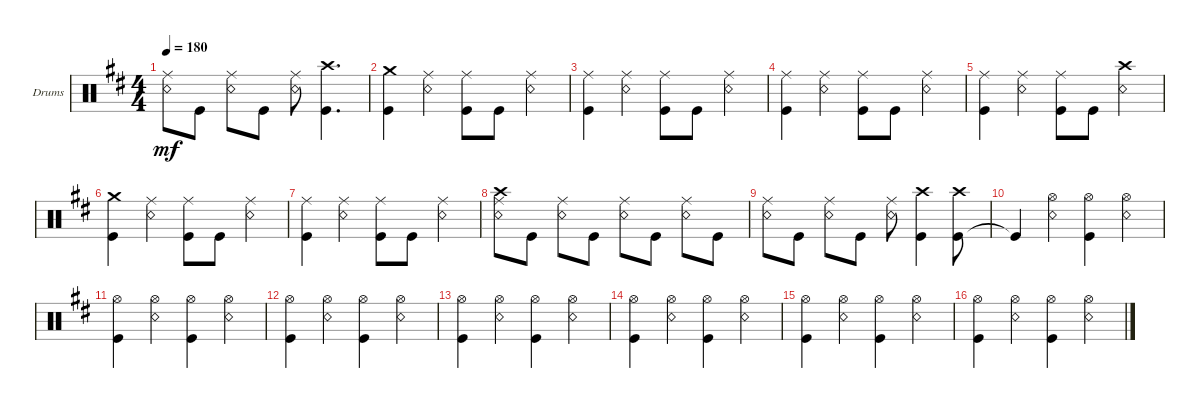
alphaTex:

\defaultSystemsLayout 4
\bracketExtendMode groupsimilarinstruments
\firstSystemTrackNameOrientation horizontal
\otherSystemsTrackNameOrientation horizontal
\track ("Drumkit" "Drums") {instrument percussion}
\staff {score}
\articulation defaults
\ts (4 4)
\tempo 180
\clef neutral
\ks bminor
("Snare (rim shot)" "Ride (middle)").8{dy mf} "Kick (hit)".8 ("Snare (rim shot)" "Ride (middle)").8 "Kick (hit)".8 ("Snare (rim shot)" "Ride (middle)").8 ("Kick (hit)" "Crash high (hit)").4{d} |
("Kick (hit)" "Crash medium (hit)").4 ("Ride (middle)" "Snare (rim shot)").4 ("Ride (middle)" "Kick (hit)").8 "Kick (hit)".8 ("Ride (middle)" "Snare (rim shot)").4 |
("Kick (hit)" "Ride (middle)").4 ("Ride (middle)" "Snare (rim shot)").4 ("Ride (middle)" "Kick (hit)").8 "Kick (hit)".8 ("Ride (middle)" "Snare (rim shot)").4 |
("Kick (hit)" "Ride (middle)").4 ("Ride (middle)" "Snare (rim shot)").4 ("Ride (middle)" "Kick (hit)").8 "Kick (hit)".8 ("Ride (middle)" "Snare (rim shot)").4 |
("Kick (hit)" "Ride (middle)").4 ("Ride (middle)" "Snare (rim shot)").4 ("Ride (middle)" "Kick (hit)").8 "Kick (hit)".8 ("Snare (rim shot)" "Crash high (hit)").4 |
("Kick (hit)" "Crash medium (hit)").4 ("Ride (middle)" "Snare (rim shot)").4 ("Ride (middle)" "Kick (hit)").8 "Kick (hit)".8 ("Ride (middle)" "Snare (rim shot)").4 |
("Kick (hit)" "Ride (middle)").4 ("Ride (middle)" "Snare (rim shot)").4 ("Ride (middle)" "Kick (hit)").8 "Kick (hit)".8 ("Ride (middle)" "Snare (rim shot)").4 |
("Snare (rim shot)" "Ride (middle)" "Crash high (hit)").8 "Kick (hit)".8 ("Snare (rim shot)" "Ride (middle)").8 "Kick (hit)".8 ("Snare (rim shot)" "Ride (middle)").8 "Kick (hit)".8 ("Snare (rim shot)" "Ride (middle)").8 "Kick (hit)".8 |
("Snare (rim shot)" "Ride (middle)").8 "Kick (hit)".8 ("Snare (rim shot)" "Ride (middle)").8 "Kick (hit)".8 ("Snare (rim shot)" "Ride (middle)").8 ("Kick (hit)" "Crash high (hit)").4 ("Kick (hit)" "Crash high (hit)").8 |
"Kick (hit)"{t}.4 ("Hi-Hat (open)" "Snare (rim shot)").4 ("Hi-Hat (open)" "Kick (hit)").4 ("Hi-Hat (open)" "Snare (rim shot)").4 |
("Kick (hit)" "Hi-Hat (open)").4 ("Hi-Hat (open)" "Snare (rim shot)").4 ("Hi-Hat (open)" "Kick (hit)").4 ("Hi-Hat (open)" "Snare (rim shot)").4 |
("Kick (hit)" "Hi-Hat (open)").4 ("Hi-Hat (open)" "Snare (rim shot)").4 ("Hi-Hat (open)" "Kick (hit)").4 ("Hi-Hat (open)" "Snare (rim shot)").4 |
("Kick (hit)" "Hi-Hat (open)").4 ("Hi-Hat (open)" "Snare (rim shot)").4 ("Hi-Hat (open)" "Kick (hit)").4 ("Hi-Hat (open)" "Snare (rim shot)").4 |
("Kick (hit)" "Hi-Hat (open)").4 ("Hi-Hat (open)" "Snare (rim shot)").4 ("Hi-Hat (open)" "Kick (hit)").4 ("Hi-Hat (open)" "Snare (rim shot)").4 |
("Kick (hit)" "Hi-Hat (open)").4 ("Hi-Hat (open)" "Snare (rim shot)").4 ("Hi-Hat (open)" "Kick (hit)").4 ("Hi-Hat (open)" "Snare (rim shot)").4 |
("Kick (hit)" "Hi-Hat (open)").4 ("Hi-Hat (open)" "Snare (rim shot)").4 ("Hi-Hat (open)" "Kick (hit)").4 ("Hi-Hat (open)" "Snare (rim shot)").4
